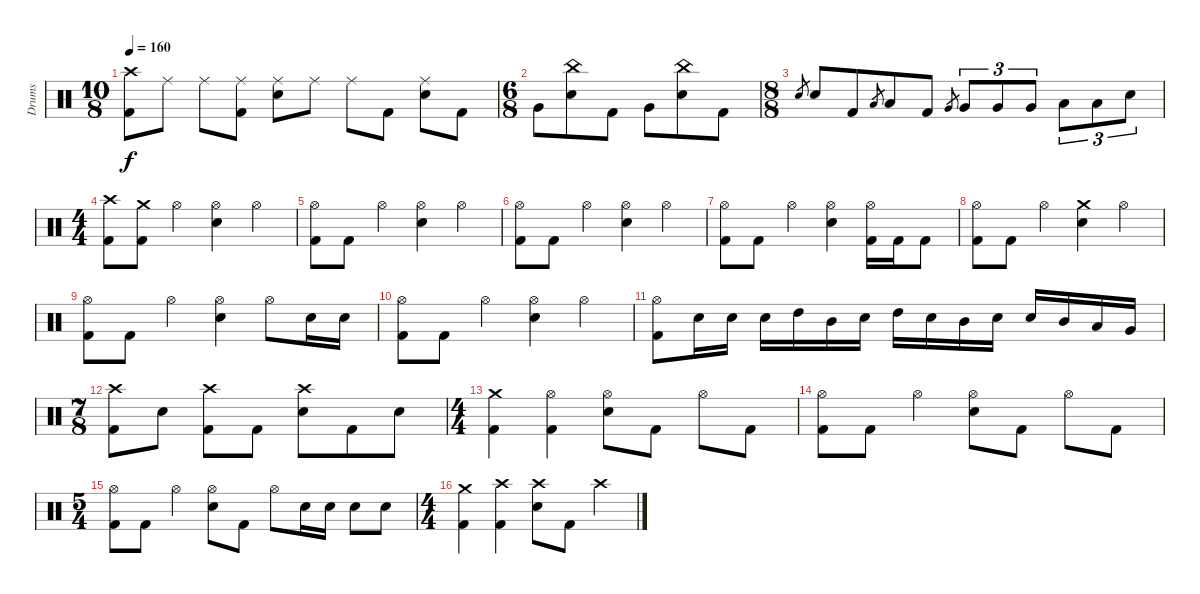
\track ("Drums" "Drums") {instrument percussion}
\staff {score}
\articulation defaults
\ts (10 8)
\tempo 160
\clef neutral
\ks c
("Crash high (hit)" "Kick (hit) 2").8{dy f} "Ride (middle)".8{beam split} "Ride (middle)".8{beam merge} ("Ride (middle)" "Kick (hit) 2").8{beam split} ("Ride (middle)" "Electric Snare (hit)").8 "Ride (middle)".8{beam split} "Ride (middle)".8{beam merge} "Kick (hit) 2".8{beam split} ("Ride (middle)" "Electric Snare (hit)").8{beam merge} "Kick (hit) 2".8 |
\ts (6 8)
"Very Low Tom (hit)".8 ("China (hit)" "Electric Snare (hit)").8 "Kick (hit) 2".8{beam split} "Very Low Tom (hit)".8 ("China (hit)" "Electric Snare (hit)").8 "Kick (hit) 2".8 |
\ts (8 8)
"Electric Snare (hit)".8{gr} "Electric Snare (hit)".8 "Kick (hit) 2".8 "Low Tom (hit)".8{gr beam split} "Low Tom (hit)".8{beam merge} "Kick (hit) 2".8 "Very Low Tom (hit)".8{gr} "Very Low Tom (hit)".8{tu (3 2)} "Very Low Tom (hit)".8{tu (3 2) beam merge} "Very Low Tom (hit)".8{tu (3 2)} "Low Floor Tom (hit)".8{tu (3 2)} "Low Floor Tom (hit)".8{tu (3 2) beam merge} "Electric Snare (hit)".8{tu (3 2)} |
\ts (4 4)
("Crash high (hit)" "Kick (hit) 2").8 ("Crash medium (hit)" "Kick (hit) 2").8 "Hi-Hat (open)".4 ("Hi-Hat (open)" "Electric Snare (hit)").4 "Hi-Hat (open)".4 |
("Hi-Hat (open)" "Kick (hit) 2").8 "Kick (hit) 2".8 "Hi-Hat (open)".4 ("Hi-Hat (open)" "Electric Snare (hit)").4 "Hi-Hat (open)".4 |
("Hi-Hat (open)" "Kick (hit) 2").8 "Kick (hit) 2".8 "Hi-Hat (open)".4 ("Hi-Hat (open)" "Electric Snare (hit)").4 "Hi-Hat (open)".4 |
("Hi-Hat (open)" "Kick (hit) 2").8 "Kick (hit) 2".8 "Hi-Hat (open)".4 ("Hi-Hat (open)" "Electric Snare (hit)").4 ("Hi-Hat (open)" "Kick (hit) 2").16 "Kick (hit) 2".16 "Kick (hit) 2".8 |
("Hi-Hat (open)" "Kick (hit) 2").8 "Kick (hit) 2".8 "Hi-Hat (open)".4 ("Crash medium (hit)" "Electric Snare (hit)").4 "Hi-Hat (open)".4 |
("Hi-Hat (open)" "Kick (hit) 2").8 "Kick (hit) 2".8 "Hi-Hat (open)".4 ("Hi-Hat (open)" "Electric Snare (hit)").4 "Hi-Hat (open)".8 "Electric Snare (hit)".16 "Electric Snare (hit)".16 |
("Hi-Hat (open)" "Kick (hit) 2").8 "Kick (hit) 2".8 "Hi-Hat (open)".4 ("Hi-Hat (open)" "Electric Snare (hit)").4 "Hi-Hat (open)".4 |
("Hi-Hat (open)" "Kick (hit) 2").8 "Electric Snare (hit)".16 "Electric Snare (hit)".16 "Electric Snare (hit)".16 "High Tom (hit)".16 "Mid Tom (hit)".16 "Electric Snare (hit)".16 "High Tom (hit)".16 "Electric Snare (hit)".16 "Mid Tom (hit)".16 "Electric Snare (hit)".16 "Electric Snare (hit)".16 "Mid Tom (hit)".16 "Low Tom (hit)".16 "Very Low Tom (hit)".16 |
\ts (7 8)
("Crash high (hit)" "Kick (hit) 2").8 "Electric Snare (hit)".8{beam split} ("Crash high (hit)" "Kick (hit) 2").8{beam merge} "Kick (hit) 2".8{beam split} ("Crash high (hit)" "Electric Snare (hit)").8{beam merge} "Kick (hit) 2".8 "Electric Snare (hit)".8 |
\ts (4 4)
("Crash medium (hit)" "Kick (hit) 2").4 ("Hi-Hat (open)" "Kick (hit) 2").4 ("Hi-Hat (open)" "Electric Snare (hit)").8 "Kick (hit) 2".8 "Hi-Hat (open)".8 "Kick (hit) 2".8 |
("Hi-Hat (open)" "Kick (hit) 2").8 "Kick (hit) 2".8 "Hi-Hat (open)".4 ("Hi-Hat (open)" "Electric Snare (hit)").8 "Kick (hit) 2".8 "Hi-Hat (open)".8 "Kick (hit) 2".8 |
\ts (5 4)
("Hi-Hat (open)" "Kick (hit) 2").8 "Kick (hit) 2".8 "Hi-Hat (open)".4 ("Hi-Hat (open)" "Electric Snare (hit)").8 "Kick (hit) 2".8 "Hi-Hat (open)".8 "Electric Snare (hit)".16 "Electric Snare (hit)".16 "Electric Snare (hit)".8 "Electric Snare (hit)".8 |
\ts (4 4)
("Crash medium (hit)" "Kick (hit) 2").4 ("Crash high (hit)" "Kick (hit) 2").4 ("Crash high (hit)" "Electric Snare (hit)").8 "Kick (hit) 2".8 "Crash high (hit)".4
